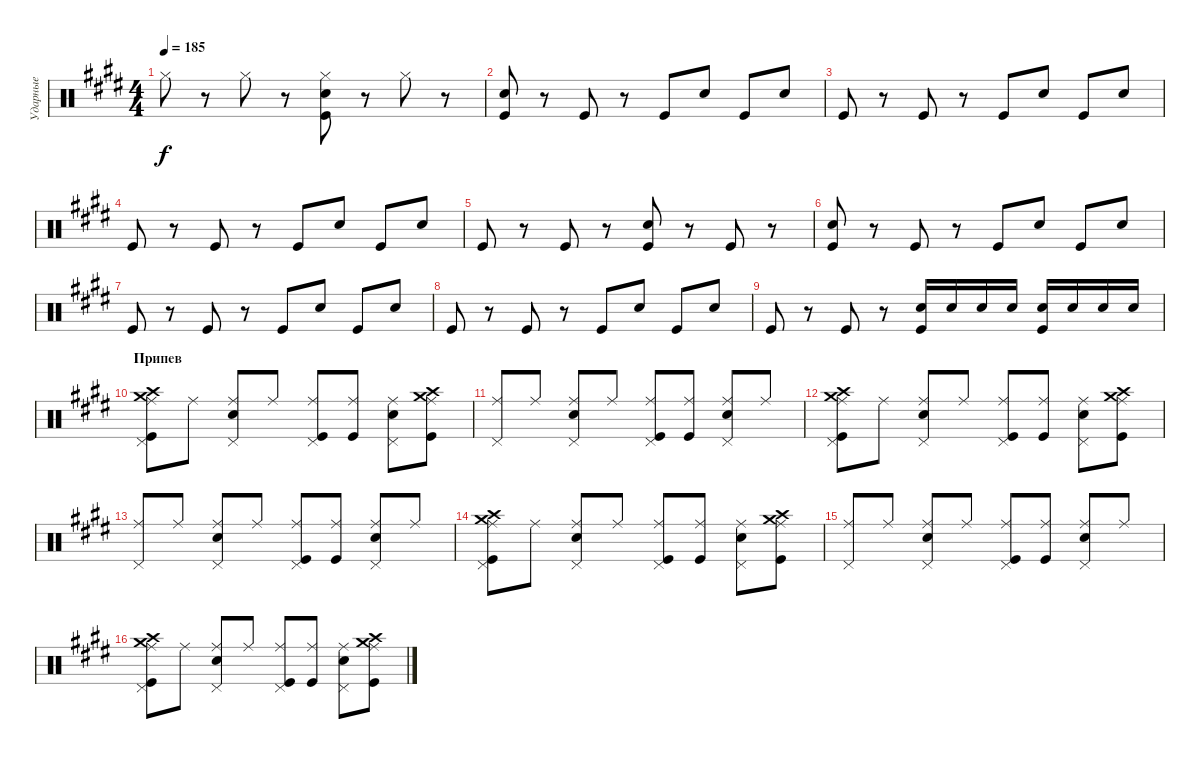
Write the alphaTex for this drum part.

\track ("Ударные" "Ударные") {instrument percussion}
\staff {score}
\articulation defaults
\ts (4 4)
\tempo 185
\clef neutral
\ks c#minor "Hi-Hat (closed)".8{dy f}
r.8 "Hi-Hat (closed)".8 r.8 ("Kick (hit)" "Hi-Hat (closed)" "Electric Snare (hit)").8 r.8 "Hi-Hat (closed)".8 r.8 |
("Kick (hit)" "Electric Snare (hit)").8 r.8 "Kick (hit)".8 r.8 "Kick (hit)".8 "Electric Snare (hit)".8 "Kick (hit)".8 "Electric Snare (hit)".8 |
"Kick (hit)".8 r.8 "Kick (hit)".8 r.8 "Kick (hit)".8 "Electric Snare (hit)".8 "Kick (hit)".8 "Electric Snare (hit)".8 |
"Kick (hit)".8 r.8 "Kick (hit)".8 r.8 "Kick (hit)".8 "Electric Snare (hit)".8 "Kick (hit)".8 "Electric Snare (hit)".8 |
"Kick (hit)".8 r.8 "Kick (hit)".8 r.8 ("Electric Snare (hit)" "Kick (hit)").8 r.8 "Kick (hit)".8 r.8 |
("Electric Snare (hit)" "Kick (hit)").8 r.8 "Kick (hit)".8 r.8 "Kick (hit)".8 "Electric Snare (hit)".8 "Kick (hit)".8 "Electric Snare (hit)".8 |
"Kick (hit)".8 r.8 "Kick (hit)".8 r.8 "Kick (hit)".8 "Electric Snare (hit)".8 "Kick (hit)".8 "Electric Snare (hit)".8 |
"Kick (hit)".8 r.8 "Kick (hit)".8 r.8 "Kick (hit)".8 "Electric Snare (hit)".8 "Kick (hit)".8 "Electric Snare (hit)".8 |
"Kick (hit)".8 r.8 "Kick (hit)".8 r.8 ("Electric Snare (hit)" "Kick (hit)").16 "Electric Snare (hit)".16 "Electric Snare (hit)".16 "Electric Snare (hit)".16 ("Kick (hit)" "Electric Snare (hit)").16 "Electric Snare (hit)".16 "Electric Snare (hit)".16 "Electric Snare (hit)".16 |
\section ("" "Припев")
("Ride (middle)" "Pedal Hi-Hat (hit)" "Crash medium (hit)" "Crash high (hit)" "Kick (hit)").8 "Ride (middle)".8 ("Ride (middle)" "Pedal Hi-Hat (hit)" "Electric Snare (hit)").8 "Ride (middle)".8 ("Ride (middle)" "Pedal Hi-Hat (hit)" "Kick (hit)").8 ("Kick (hit)" "Ride (middle)").8 ("Ride (middle)" "Pedal Hi-Hat (hit)" "Electric Snare (hit)").8 ("Kick (hit)" "Crash high (hit)" "Crash medium (hit)" "Ride (middle)").8 |
("Ride (middle)" "Pedal Hi-Hat (hit)").8 "Ride (middle)".8 ("Ride (middle)" "Pedal Hi-Hat (hit)" "Electric Snare (hit)").8 "Ride (middle)".8 ("Kick (hit)" "Ride (middle)" "Pedal Hi-Hat (hit)").8 ("Kick (hit)" "Ride (middle)").8 ("Ride (middle)" "Pedal Hi-Hat (hit)" "Electric Snare (hit)").8 "Ride (middle)".8 |
("Kick (hit)" "Pedal Hi-Hat (hit)" "Ride (middle)" "Crash high (hit)" "Crash medium (hit)").8 "Ride (middle)".8 ("Electric Snare (hit)" "Pedal Hi-Hat (hit)" "Ride (middle)").8 "Ride (middle)".8 ("Kick (hit)" "Pedal Hi-Hat (hit)" "Ride (middle)").8 ("Kick (hit)" "Ride (middle)").8 ("Electric Snare (hit)" "Pedal Hi-Hat (hit)" "Ride (middle)").8 ("Crash medium (hit)" "Crash high (hit)" "Kick (hit)" "Ride (middle)").8 |
("Ride (middle)" "Pedal Hi-Hat (hit)").8 "Ride (middle)".8 ("Ride (middle)" "Pedal Hi-Hat (hit)" "Electric Snare (hit)").8 "Ride (middle)".8 ("Kick (hit)" "Ride (middle)" "Pedal Hi-Hat (hit)").8 ("Kick (hit)" "Ride (middle)").8 ("Ride (middle)" "Pedal Hi-Hat (hit)" "Electric Snare (hit)").8 "Ride (middle)".8 |
("Ride (middle)" "Pedal Hi-Hat (hit)" "Crash medium (hit)" "Crash high (hit)" "Kick (hit)").8 "Ride (middle)".8 ("Ride (middle)" "Pedal Hi-Hat (hit)" "Electric Snare (hit)").8 "Ride (middle)".8 ("Ride (middle)" "Pedal Hi-Hat (hit)" "Kick (hit)").8 ("Kick (hit)" "Ride (middle)").8 ("Ride (middle)" "Pedal Hi-Hat (hit)" "Electric Snare (hit)").8 ("Kick (hit)" "Crash high (hit)" "Crash medium (hit)" "Ride (middle)").8 |
("Ride (middle)" "Pedal Hi-Hat (hit)").8 "Ride (middle)".8 ("Ride (middle)" "Pedal Hi-Hat (hit)" "Electric Snare (hit)").8 "Ride (middle)".8 ("Kick (hit)" "Ride (middle)" "Pedal Hi-Hat (hit)").8 ("Kick (hit)" "Ride (middle)").8 ("Ride (middle)" "Pedal Hi-Hat (hit)" "Electric Snare (hit)").8 "Ride (middle)".8 |
("Kick (hit)" "Pedal Hi-Hat (hit)" "Ride (middle)" "Crash high (hit)" "Crash medium (hit)").8 "Ride (middle)".8 ("Electric Snare (hit)" "Pedal Hi-Hat (hit)" "Ride (middle)").8 "Ride (middle)".8 ("Kick (hit)" "Pedal Hi-Hat (hit)" "Ride (middle)").8 ("Kick (hit)" "Ride (middle)").8 ("Electric Snare (hit)" "Pedal Hi-Hat (hit)" "Ride (middle)").8 ("Crash medium (hit)" "Crash high (hit)" "Kick (hit)" "Ride (middle)").8
